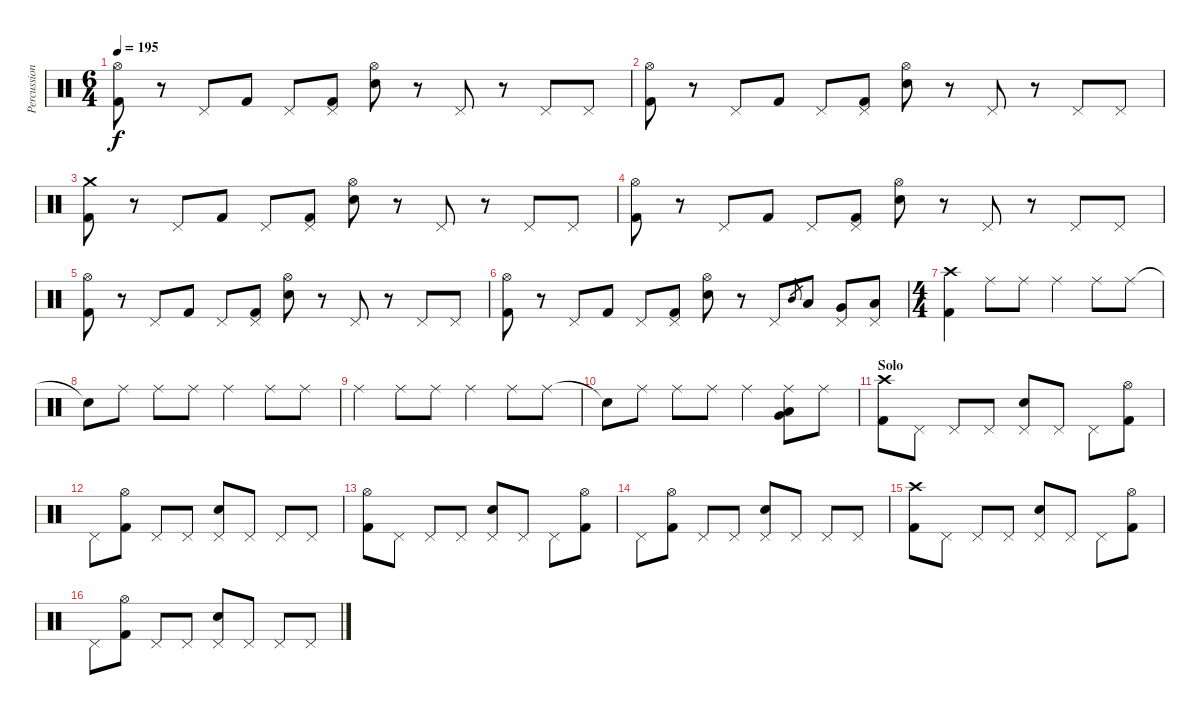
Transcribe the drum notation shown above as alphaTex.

\track ("Percussion" "Percussion") {instrument percussion}
\staff {score}
\articulation defaults
\ts (6 4)
\tempo 195
\clef neutral
\ks c
("Hi-Hat (open)" "Kick (hit) 2").8{dy f} r.8 "Pedal Hi-Hat (hit)".8 "Kick (hit) 2".8 "Pedal Hi-Hat (hit)".8 ("Pedal Hi-Hat (hit)" "Kick (hit) 2").8 ("Hi-Hat (open)" "Electric Snare (hit)").8 r.8 "Pedal Hi-Hat (hit)".8 r.8 "Pedal Hi-Hat (hit)".8 "Pedal Hi-Hat (hit)".8 |
("Hi-Hat (open)" "Kick (hit) 2").8 r.8 "Pedal Hi-Hat (hit)".8 "Kick (hit) 2".8 "Pedal Hi-Hat (hit)".8 ("Pedal Hi-Hat (hit)" "Kick (hit) 2").8 ("Hi-Hat (open)" "Electric Snare (hit)").8 r.8 "Pedal Hi-Hat (hit)".8 r.8 "Pedal Hi-Hat (hit)".8 "Pedal Hi-Hat (hit)".8 |
("Crash medium (hit)" "Kick (hit) 2").8 r.8 "Pedal Hi-Hat (hit)".8 "Kick (hit) 2".8 "Pedal Hi-Hat (hit)".8 ("Pedal Hi-Hat (hit)" "Kick (hit) 2").8 ("Hi-Hat (open)" "Electric Snare (hit)").8 r.8 "Pedal Hi-Hat (hit)".8 r.8 "Pedal Hi-Hat (hit)".8 "Pedal Hi-Hat (hit)".8 |
("Hi-Hat (open)" "Kick (hit) 2").8 r.8 "Pedal Hi-Hat (hit)".8 "Kick (hit) 2".8 "Pedal Hi-Hat (hit)".8 ("Pedal Hi-Hat (hit)" "Kick (hit) 2").8 ("Hi-Hat (open)" "Electric Snare (hit)").8 r.8 "Pedal Hi-Hat (hit)".8 r.8 "Pedal Hi-Hat (hit)".8 "Pedal Hi-Hat (hit)".8 |
("Hi-Hat (open)" "Kick (hit) 2").8 r.8 "Pedal Hi-Hat (hit)".8 "Kick (hit) 2".8 "Pedal Hi-Hat (hit)".8 ("Pedal Hi-Hat (hit)" "Kick (hit) 2").8 ("Hi-Hat (open)" "Electric Snare (hit)").8 r.8 "Pedal Hi-Hat (hit)".8 r.8 "Pedal Hi-Hat (hit)".8 "Pedal Hi-Hat (hit)".8 |
("Hi-Hat (open)" "Kick (hit) 2").8 r.8 "Pedal Hi-Hat (hit)".8 "Kick (hit) 2".8 "Pedal Hi-Hat (hit)".8 ("Pedal Hi-Hat (hit)" "Kick (hit) 2").8 ("Hi-Hat (open)" "Electric Snare (hit)").8 r.8 "Pedal Hi-Hat (hit)".8 "Mid Tom (hit)".8{gr} "Low Tom (hit)".8 ("Pedal Hi-Hat (hit)" "Very Low Tom (hit)").8 ("Pedal Hi-Hat (hit)" "Low Floor Tom (hit)").8 |
\ts (4 4)
("Crash high (hit)" "Kick (hit) 2").4 "Ride (middle)".8 "Ride (middle)".8 "Ride (middle)".4 "Ride (middle)".8 "Ride (middle)".8 |
"Snare (hit)"{t}.8 "Ride (middle)".8 "Ride (middle)".8 "Ride (middle)".8 "Ride (middle)".4 "Ride (middle)".8 "Ride (middle)".8 |
"Ride (middle)".4 "Ride (middle)".8 "Ride (middle)".8 "Ride (middle)".4 "Ride (middle)".8 "Ride (middle)".8 |
"Snare (hit)"{t}.8 "Ride (middle)".8 "Ride (middle)".8 "Ride (middle)".8 "Ride (middle)".4 ("Ride (middle)" "Very Low Tom (hit)" "Low Floor Tom (hit)").8 "Ride (middle)".8 |
\section ("" "Solo")
("Crash high (hit)" "Kick (hit) 2").8 "Pedal Hi-Hat (hit)".8 "Pedal Hi-Hat (hit)".8 "Pedal Hi-Hat (hit)".8 ("Pedal Hi-Hat (hit)" "Electric Snare (hit)").8 "Pedal Hi-Hat (hit)".8 "Pedal Hi-Hat (hit)".8 ("Hi-Hat (open)" "Kick (hit) 2").8 |
"Pedal Hi-Hat (hit)".8 ("Hi-Hat (open)" "Kick (hit) 2").8 "Pedal Hi-Hat (hit)".8 "Pedal Hi-Hat (hit)".8 ("Pedal Hi-Hat (hit)" "Electric Snare (hit)").8 "Pedal Hi-Hat (hit)".8 "Pedal Hi-Hat (hit)".8 "Pedal Hi-Hat (hit)".8 |
("Hi-Hat (open)" "Kick (hit) 2").8 "Pedal Hi-Hat (hit)".8 "Pedal Hi-Hat (hit)".8 "Pedal Hi-Hat (hit)".8 ("Pedal Hi-Hat (hit)" "Electric Snare (hit)").8 "Pedal Hi-Hat (hit)".8 "Pedal Hi-Hat (hit)".8 ("Hi-Hat (open)" "Kick (hit) 2").8 |
"Pedal Hi-Hat (hit)".8 ("Hi-Hat (open)" "Kick (hit) 2").8 "Pedal Hi-Hat (hit)".8 "Pedal Hi-Hat (hit)".8 ("Pedal Hi-Hat (hit)" "Electric Snare (hit)").8 "Pedal Hi-Hat (hit)".8 "Pedal Hi-Hat (hit)".8 "Pedal Hi-Hat (hit)".8 |
("Crash high (hit)" "Kick (hit) 2").8 "Pedal Hi-Hat (hit)".8 "Pedal Hi-Hat (hit)".8 "Pedal Hi-Hat (hit)".8 ("Pedal Hi-Hat (hit)" "Electric Snare (hit)").8 "Pedal Hi-Hat (hit)".8 "Pedal Hi-Hat (hit)".8 ("Hi-Hat (open)" "Kick (hit) 2").8 |
"Pedal Hi-Hat (hit)".8 ("Hi-Hat (open)" "Kick (hit) 2").8 "Pedal Hi-Hat (hit)".8 "Pedal Hi-Hat (hit)".8 ("Pedal Hi-Hat (hit)" "Electric Snare (hit)").8 "Pedal Hi-Hat (hit)".8 "Pedal Hi-Hat (hit)".8 "Pedal Hi-Hat (hit)".8
